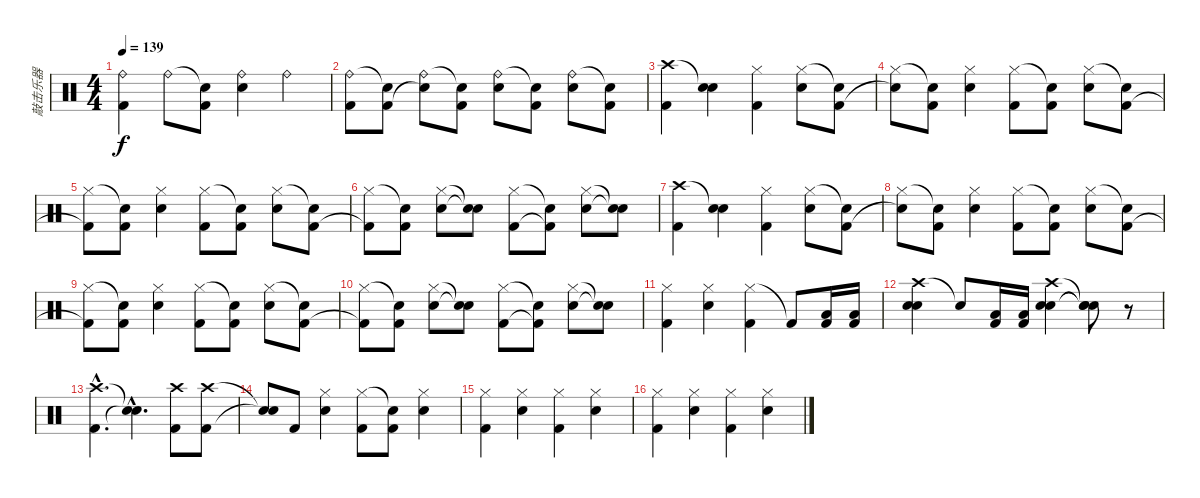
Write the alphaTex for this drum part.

\track ("敲击乐器" "敲击乐器") {instrument percussion}
\staff {score}
\articulation defaults
\ts (4 4)
\tempo 139
\clef neutral
\ks c
("Ride (bell)" "Kick (hit) 2").4{dy f} "Ride (bell)".8 ("Snare (hit)"{t} "Kick (hit) 2").8 ("Ride (bell)" "Snare (hit) 2").4 "Ride (bell)".4 |
("Ride (bell)" "Kick (hit) 2").8 ("Snare (hit)"{t} "Kick (hit) 2").8 ("Ride (bell)" "Snare (hit)"{t}).8 ("Snare (hit)"{t} "Kick (hit) 2").8 ("Ride (bell)" "Snare (hit) 2").8 ("Snare (hit)"{t} "Kick (hit) 2").8 ("Ride (bell)" "Snare (hit) 2").8 ("Snare (hit)"{t} "Kick (hit) 2").8 |
("Crash high (hit)" "Kick (hit) 2").4 ("Snare (hit)"{t} "Snare (hit) 2").4 ("Hi-Hat (closed)" "Kick (hit) 2").4 ("Hi-Hat (closed)" "Snare (hit) 2").8 ("Snare (hit)"{t} "Kick (hit) 2").8 |
("Hi-Hat (closed)" "Snare (hit)"{t}).8 ("Snare (hit)"{t} "Kick (hit) 2").8 ("Hi-Hat (closed)" "Snare (hit) 2").4 ("Hi-Hat (closed)" "Kick (hit) 2").8 ("Snare (hit)"{t} "Kick (hit) 2").8 ("Hi-Hat (closed)" "Snare (hit) 2").8 ("Snare (hit)"{t} "Kick (hit) 2").8 |
("Hi-Hat (closed)" "Kick (hit) 2"{t}).8 ("Snare (hit)"{t} "Kick (hit) 2").8 ("Hi-Hat (closed)" "Snare (hit) 2").4 ("Hi-Hat (closed)" "Kick (hit) 2").8 ("Snare (hit)"{t} "Kick (hit) 2").8 ("Hi-Hat (closed)" "Snare (hit) 2").8 ("Snare (hit)"{t} "Kick (hit) 2").8 |
("Hi-Hat (closed)" "Kick (hit) 2"{t}).8 ("Snare (hit)"{t} "Kick (hit) 2").8 ("Hi-Hat (closed)" "Snare (hit) 2").8 ("Snare (hit)"{t} "Snare (hit)"{t}).8 ("Hi-Hat (closed)" "Kick (hit) 2").8 ("Snare (hit)"{t} "Kick (hit) 2"{t}).8 ("Hi-Hat (closed)" "Snare (hit) 2").8 ("Snare (hit)"{t} "Snare (hit)"{t}).8 |
("Crash high (hit)" "Kick (hit) 2").4 ("Snare (hit)"{t} "Snare (hit) 2").4 ("Hi-Hat (closed)" "Kick (hit) 2").4 ("Hi-Hat (closed)" "Snare (hit) 2").8 ("Snare (hit)"{t} "Kick (hit) 2").8 |
("Hi-Hat (closed)" "Snare (hit)"{t}).8 ("Snare (hit)"{t} "Kick (hit) 2").8 ("Hi-Hat (closed)" "Snare (hit) 2").4 ("Hi-Hat (closed)" "Kick (hit) 2").8 ("Snare (hit)"{t} "Kick (hit) 2").8 ("Hi-Hat (closed)" "Snare (hit) 2").8 ("Snare (hit)"{t} "Kick (hit) 2").8 |
("Hi-Hat (closed)" "Kick (hit) 2"{t}).8 ("Snare (hit)"{t} "Kick (hit) 2").8 ("Hi-Hat (closed)" "Snare (hit) 2").4 ("Hi-Hat (closed)" "Kick (hit) 2").8 ("Snare (hit)"{t} "Kick (hit) 2").8 ("Hi-Hat (closed)" "Snare (hit) 2").8 ("Snare (hit)"{t} "Kick (hit) 2").8 |
("Hi-Hat (closed)" "Kick (hit) 2"{t}).8 ("Snare (hit)"{t} "Kick (hit) 2").8 ("Hi-Hat (closed)" "Snare (hit) 2").8 ("Snare (hit)"{t} "Snare (hit)"{t}).8 ("Hi-Hat (closed)" "Kick (hit) 2").8 ("Snare (hit)"{t} "Kick (hit) 2"{t}).8 ("Hi-Hat (closed)" "Snare (hit) 2").8 ("Snare (hit)"{t} "Snare (hit)"{t}).8 |
("Hi-Hat (closed)" "Kick (hit) 2").4 ("Hi-Hat (closed)" "Snare (hit) 2").4 ("Hi-Hat (closed)" "Kick (hit) 2").4 "Kick (hit) 2"{t}.8 ("Low Tom (hit)" "Kick (hit) 2").16 ("Low Tom (hit)" "Kick (hit) 2").16 |
("Crash high (hit)" "Snare (hit) 2" "Snare (hit) 2").4 "Snare (hit)"{t}.8 ("Low Tom (hit)" "Kick (hit) 2").16 ("Low Tom (hit)" "Kick (hit) 2").16 ("Crash high (hit)" "Snare (hit) 2" "Snare (hit) 2").4 ("Snare (hit)"{t} "Snare (hit)"{t} "Snare (hit)"{t}).8 r.8 |
("Crash high (hit)"{hac} "Kick (hit) 2"{hac}).4{d} ("Snare (hit)"{hac t} "Snare (hit)"{hac t}).4{d} ("Crash high (hit)" "Kick (hit) 2").8 ("Crash high (hit)" "Kick (hit) 2").8 |
("Snare (hit)"{t} "Snare (hit)"{t}).8 "Kick (hit) 2".8 ("Hi-Hat (closed)" "Snare (hit) 2").4 ("Hi-Hat (closed)" "Kick (hit) 2").8 ("Snare (hit)"{t} "Kick (hit) 2").8 ("Hi-Hat (closed)" "Snare (hit) 2").4 |
("Hi-Hat (closed)" "Kick (hit) 2").4 ("Hi-Hat (closed)" "Snare (hit) 2").4 ("Hi-Hat (closed)" "Kick (hit) 2").4 ("Hi-Hat (closed)" "Snare (hit) 2").4 |
("Hi-Hat (closed)" "Kick (hit) 2").4 ("Hi-Hat (closed)" "Snare (hit) 2").4 ("Hi-Hat (closed)" "Kick (hit) 2").4 ("Hi-Hat (closed)" "Snare (hit) 2").4
